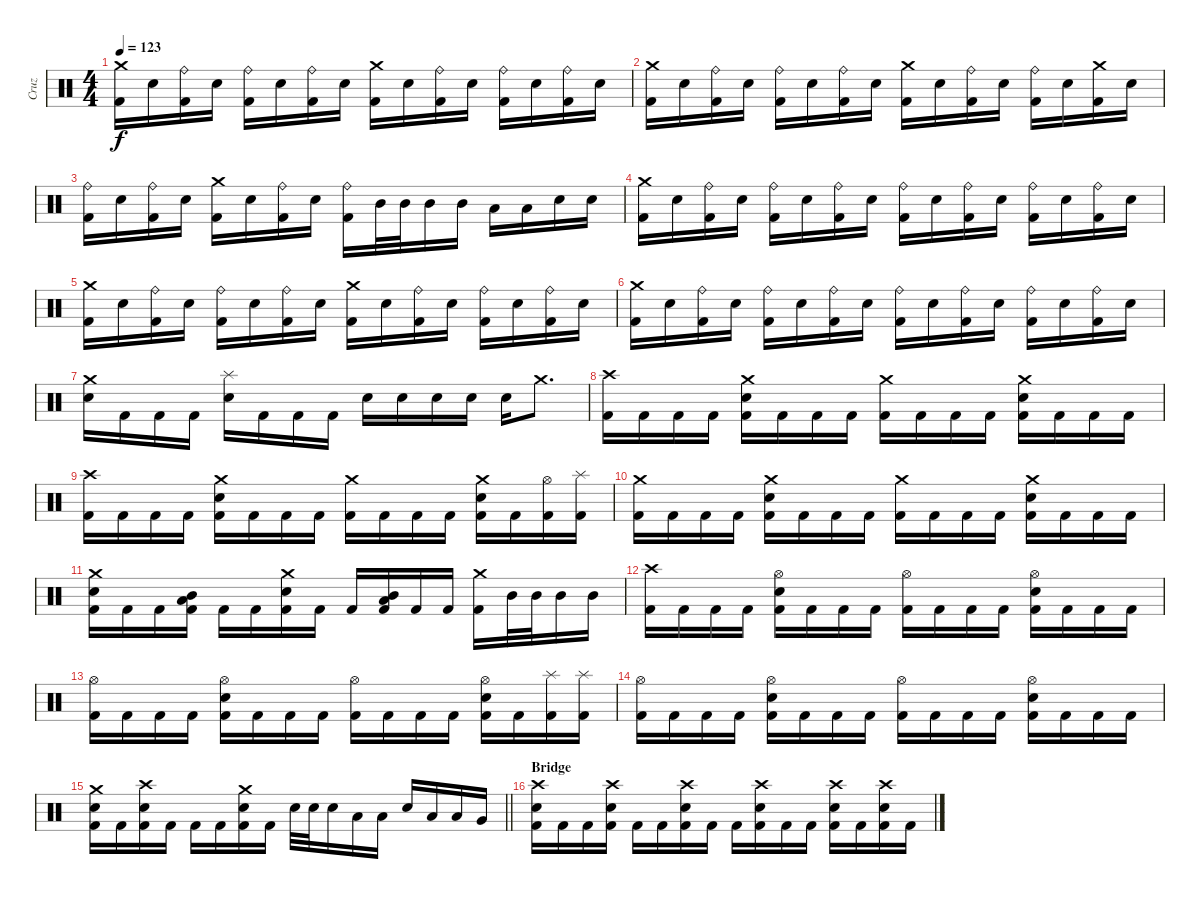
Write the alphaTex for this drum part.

\track ("Cruz" "Cruz") {instrument percussion}
\staff {score}
\articulation defaults
\ts (4 4)
\tempo 123
\clef neutral
\ks c
("Crash medium (hit)" "Kick (hit) 2").16{dy f} "Snare (hit) 2".16 ("Ride (bell)" "Kick (hit) 2").16 "Snare (hit) 2".16 ("Ride (bell)" "Kick (hit) 2").16 "Snare (hit) 2".16 ("Ride (bell)" "Kick (hit) 2").16 "Snare (hit) 2".16 ("Crash medium (hit)" "Kick (hit) 2").16 "Snare (hit) 2".16 ("Ride (bell)" "Kick (hit) 2").16 "Snare (hit) 2".16 ("Ride (bell)" "Kick (hit) 2").16 "Snare (hit) 2".16 ("Ride (bell)" "Kick (hit) 2").16 "Snare (hit) 2".16 |
("Crash medium (hit)" "Kick (hit) 2").16 "Snare (hit) 2".16 ("Ride (bell)" "Kick (hit) 2").16 "Snare (hit) 2".16 ("Ride (bell)" "Kick (hit) 2").16 "Snare (hit) 2".16 ("Ride (bell)" "Kick (hit) 2").16 "Snare (hit) 2".16 ("Crash medium (hit)" "Kick (hit) 2").16 "Snare (hit) 2".16 ("Ride (bell)" "Kick (hit) 2").16 "Snare (hit) 2".16 ("Ride (bell)" "Kick (hit) 2").16 "Snare (hit) 2".16 ("Crash medium (hit)" "Kick (hit) 2").16 "Snare (hit) 2".16 |
("Ride (bell)" "Kick (hit) 2").16 "Snare (hit) 2".16 ("Ride (bell)" "Kick (hit) 2").16 "Snare (hit) 2".16 ("Crash medium (hit)" "Kick (hit) 2").16 "Snare (hit) 2".16 ("Ride (bell)" "Kick (hit) 2").16 "Snare (hit) 2".16 ("Ride (bell)" "Kick (hit) 2").16 "Mid Tom (hit)".32 "Mid Tom (hit)".32 "Mid Tom (hit)".16 "Mid Tom (hit)".16 "Low Tom (hit)".16 "Low Tom (hit)".16 "Snare (hit) 2".16 "Snare (hit) 2".16 |
("Crash medium (hit)" "Kick (hit) 2").16 "Snare (hit) 2".16 ("Ride (bell)" "Kick (hit) 2").16 "Snare (hit) 2".16 ("Ride (bell)" "Kick (hit) 2").16 "Snare (hit) 2".16 ("Ride (bell)" "Kick (hit) 2").16 "Snare (hit) 2".16 ("Ride (bell)" "Kick (hit) 2").16 "Snare (hit) 2".16 ("Ride (bell)" "Kick (hit) 2").16 "Snare (hit) 2".16 ("Ride (bell)" "Kick (hit) 2").16 "Snare (hit) 2".16 ("Ride (bell)" "Kick (hit) 2").16 "Snare (hit) 2".16 |
("Crash medium (hit)" "Kick (hit) 2").16 "Snare (hit) 2".16 ("Ride (bell)" "Kick (hit) 2").16 "Snare (hit) 2".16 ("Ride (bell)" "Kick (hit) 2").16 "Snare (hit) 2".16 ("Ride (bell)" "Kick (hit) 2").16 "Snare (hit) 2".16 ("Crash medium (hit)" "Kick (hit) 2").16 "Snare (hit) 2".16 ("Ride (bell)" "Kick (hit) 2").16 "Snare (hit) 2".16 ("Ride (bell)" "Kick (hit) 2").16 "Snare (hit) 2".16 ("Ride (bell)" "Kick (hit) 2").16 "Snare (hit) 2".16 |
("Crash medium (hit)" "Kick (hit) 2").16 "Snare (hit) 2".16 ("Ride (bell)" "Kick (hit) 2").16 "Snare (hit) 2".16 ("Ride (bell)" "Kick (hit) 2").16 "Snare (hit) 2".16 ("Ride (bell)" "Kick (hit) 2").16 "Snare (hit) 2".16 ("Ride (bell)" "Kick (hit) 2").16 "Snare (hit) 2".16 ("Ride (bell)" "Kick (hit) 2").16 "Snare (hit) 2".16 ("Ride (bell)" "Kick (hit) 2").16 "Snare (hit) 2".16 ("Ride (bell)" "Kick (hit) 2").16 "Snare (hit) 2".16 |
("Crash medium (hit)" "Snare (hit) 2").16 "Kick (hit) 2".16 "Kick (hit) 2".16 "Kick (hit) 2".16 ("Splash (hit)" "Snare (hit) 2").16 "Kick (hit) 2".16 "Kick (hit) 2".16 "Kick (hit) 2".16 "Snare (hit) 2".16 "Snare (hit) 2".16 "Snare (hit) 2".16 "Snare (hit) 2".16 "Snare (hit) 2".16 "Crash medium (hit)".8{d} |
("Crash high (hit)" "Kick (hit) 2").16 "Kick (hit) 2".16 "Kick (hit) 2".16 "Kick (hit) 2".16 ("Crash medium (hit)" "Snare (hit) 2" "Kick (hit) 2").16 "Kick (hit) 2".16 "Kick (hit) 2".16 "Kick (hit) 2".16 ("Crash medium (hit)" "Kick (hit) 2").16 "Kick (hit) 2".16 "Kick (hit) 2".16 "Kick (hit) 2".16 ("Crash medium (hit)" "Snare (hit) 2" "Kick (hit) 2").16 "Kick (hit) 2".16 "Kick (hit) 2".16 "Kick (hit) 2".16 |
("Crash high (hit)" "Kick (hit) 2").16 "Kick (hit) 2".16 "Kick (hit) 2".16 "Kick (hit) 2".16 ("Crash medium (hit)" "Snare (hit) 2" "Kick (hit) 2").16 "Kick (hit) 2".16 "Kick (hit) 2".16 "Kick (hit) 2".16 ("Crash medium (hit)" "Kick (hit) 2").16 "Kick (hit) 2".16 "Kick (hit) 2".16 "Kick (hit) 2".16 ("Crash medium (hit)" "Snare (hit) 2" "Kick (hit) 2").16 "Kick (hit) 2".16 ("Hi-Hat (open)" "Kick (hit) 2").16 ("Splash (hit)" "Kick (hit) 2").16 |
("Crash medium (hit)" "Kick (hit) 2").16 "Kick (hit) 2".16 "Kick (hit) 2".16 "Kick (hit) 2".16 ("Crash medium (hit)" "Snare (hit) 2" "Kick (hit) 2").16 "Kick (hit) 2".16 "Kick (hit) 2".16 "Kick (hit) 2".16 ("Crash medium (hit)" "Kick (hit) 2").16 "Kick (hit) 2".16 "Kick (hit) 2".16 "Kick (hit) 2".16 ("Crash medium (hit)" "Snare (hit) 2" "Kick (hit) 2").16 "Kick (hit) 2".16 "Kick (hit) 2".16 "Kick (hit) 2".16 |
("Crash medium (hit)" "Snare (hit) 2" "Kick (hit) 2").16 "Kick (hit) 2".16 "Kick (hit) 2".16 ("Mid Tom (hit)" "Low Tom (hit)" "Kick (hit) 2").16 "Kick (hit) 2".16 "Kick (hit) 2".16 ("Crash medium (hit)" "Snare (hit) 2" "Kick (hit) 2").16 "Kick (hit) 2".16 "Kick (hit) 2".16 ("Mid Tom (hit)" "Low Tom (hit)" "Kick (hit) 2").16 "Kick (hit) 2".16 "Kick (hit) 2".16 ("Crash medium (hit)" "Kick (hit) 2").16 "Mid Tom (hit)".32 "Mid Tom (hit)".32 "Mid Tom (hit)".16 "Mid Tom (hit)".16 |
("Crash high (hit)" "Kick (hit) 2").16 "Kick (hit) 2".16 "Kick (hit) 2".16 "Kick (hit) 2".16 ("Hi-Hat (open)" "Snare (hit) 2" "Kick (hit) 2").16 "Kick (hit) 2".16 "Kick (hit) 2".16 "Kick (hit) 2".16 ("Hi-Hat (open)" "Kick (hit) 2").16 "Kick (hit) 2".16 "Kick (hit) 2".16 "Kick (hit) 2".16 ("Hi-Hat (open)" "Snare (hit) 2" "Kick (hit) 2").16 "Kick (hit) 2".16 "Kick (hit) 2".16 "Kick (hit) 2".16 |
("Hi-Hat (open)" "Kick (hit) 2").16 "Kick (hit) 2".16 "Kick (hit) 2".16 "Kick (hit) 2".16 ("Hi-Hat (open)" "Snare (hit) 2" "Kick (hit) 2").16 "Kick (hit) 2".16 "Kick (hit) 2".16 "Kick (hit) 2".16 ("Hi-Hat (open)" "Kick (hit) 2").16 "Kick (hit) 2".16 "Kick (hit) 2".16 "Kick (hit) 2".16 ("Hi-Hat (open)" "Snare (hit) 2" "Kick (hit) 2").16 "Kick (hit) 2".16 ("Splash (hit)" "Kick (hit) 2").16 ("Splash (hit)" "Kick (hit) 2").16 |
("Hi-Hat (open)" "Kick (hit) 2").16 "Kick (hit) 2".16 "Kick (hit) 2".16 "Kick (hit) 2".16 ("Hi-Hat (open)" "Snare (hit) 2" "Kick (hit) 2").16 "Kick (hit) 2".16 "Kick (hit) 2".16 "Kick (hit) 2".16 ("Hi-Hat (open)" "Kick (hit) 2").16 "Kick (hit) 2".16 "Kick (hit) 2".16 "Kick (hit) 2".16 ("Hi-Hat (open)" "Snare (hit) 2" "Kick (hit) 2").16 "Kick (hit) 2".16 "Kick (hit) 2".16 "Kick (hit) 2".16 |
\barLineRight lightlight
("Crash medium (hit)" "Snare (hit) 2" "Kick (hit) 2").16 "Kick (hit) 2".16 ("Crash high (hit)" "Snare (hit) 2" "Kick (hit) 2").16 "Kick (hit) 2".16 "Kick (hit) 2".16 "Kick (hit) 2".16 ("Crash medium (hit)" "Snare (hit) 2" "Kick (hit) 2").16 "Kick (hit) 2".16 "Snare (hit) 2".32 "Snare (hit) 2".32 "Snare (hit) 2".16 "Low Tom (hit)".16 "Low Tom (hit)".16 "Snare (hit) 2".16 "Low Tom (hit)".16 "Low Tom (hit)".16 "Very Low Tom (hit)".16 |
\section ("" "Bridge")
("Crash high (hit)" "Snare (hit) 2" "Kick (hit) 2").16 "Kick (hit) 2".16 "Kick (hit) 2".16 ("Crash high (hit)" "Snare (hit) 2" "Kick (hit) 2").16 "Kick (hit) 2".16 "Kick (hit) 2".16 ("Crash high (hit)" "Snare (hit) 2" "Kick (hit) 2").16 "Kick (hit) 2".16 "Kick (hit) 2".16 ("Crash high (hit)" "Snare (hit) 2" "Kick (hit) 2").16 "Kick (hit) 2".16 "Kick (hit) 2".16 ("Crash high (hit)" "Snare (hit) 2" "Kick (hit) 2").16 "Kick (hit) 2".16 ("Crash high (hit)" "Snare (hit) 2" "Kick (hit) 2").16 "Kick (hit) 2".16
